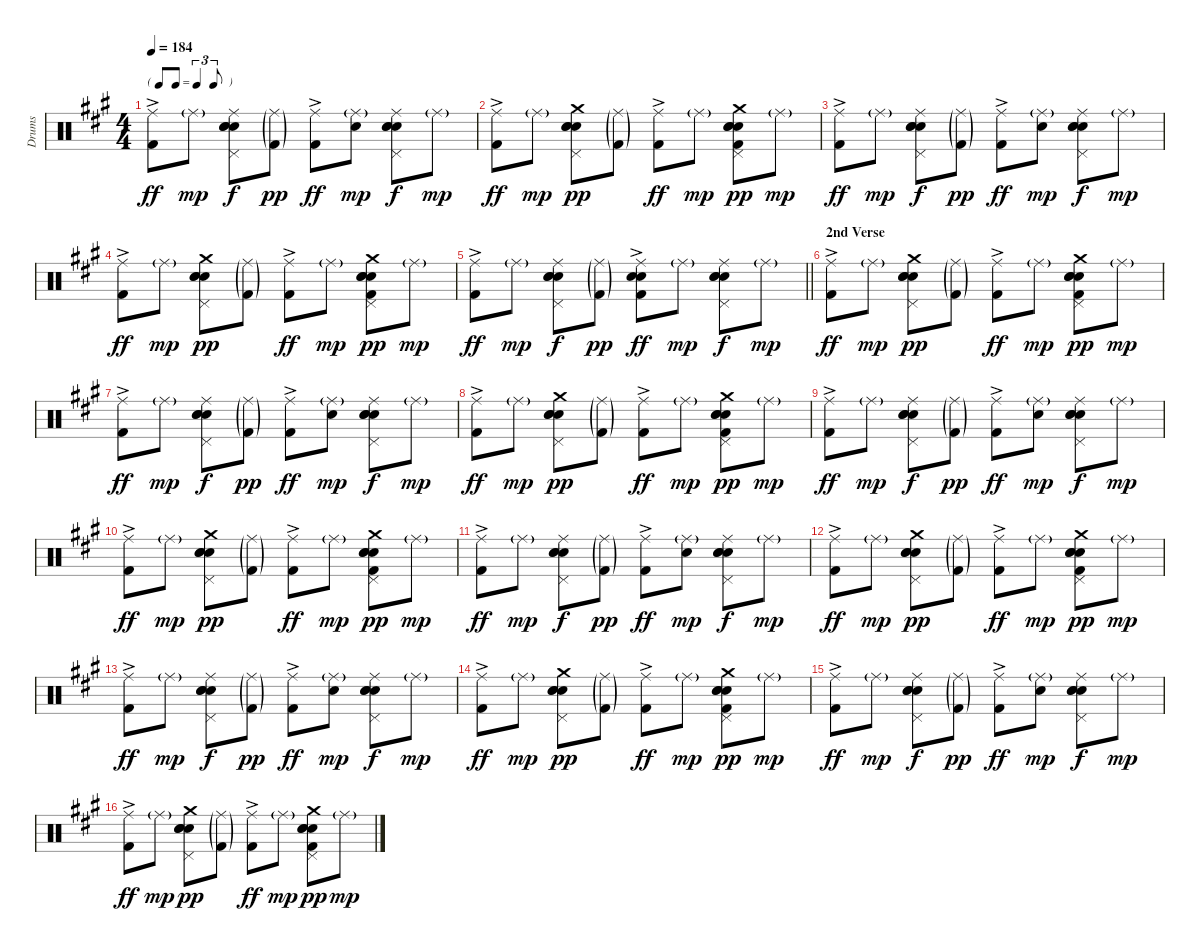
\track ("Drums" "Drums") {instrument percussion}
\staff {score}
\articulation defaults
\ts (4 4)
\tf triplet8th
\tempo 184
\clef neutral
\ks a
("Ride (middle)" "Kick (hit) 2"{ac}).8{dy ff} "Ride (middle)"{g}.8{dy mp} ("Ride (middle)" "Pedal Hi-Hat (hit)" "Hand Clap (hit)" "Electric Snare (hit)" "Snare (hit) 2").8{dy f} ("Ride (middle)"{g} "Kick (hit) 2"{g}).8{dy pp} ("Ride (middle)" "Kick (hit) 2"{ac}).8{dy ff} ("Ride (middle)"{g} "Snare (hit) 2").8{dy mp} ("Ride (middle)" "Pedal Hi-Hat (hit)" "Hand Clap (hit)" "Electric Snare (hit)" "Snare (hit) 2").8{dy f} "Ride (middle)"{g}.8{dy mp} |
("Ride (middle)" "Kick (hit) 2"{ac}).8{dy ff} "Ride (middle)"{g}.8{dy mp} ("Hand Clap (hit)" "Pedal Hi-Hat (hit)" "Crash medium (hit)" "Electric Snare (hit)" "Snare (hit) 2").8{dy pp} ("Ride (middle)"{g} "Kick (hit) 2"{g}).8 ("Ride (middle)" "Kick (hit) 2"{ac}).8{dy ff} "Ride (middle)"{g}.8{dy mp} ("Hand Clap (hit)" "Pedal Hi-Hat (hit)" "Crash medium (hit)" "Electric Snare (hit)" "Snare (hit) 2" "Kick (hit) 2").8{dy pp} "Ride (middle)"{g}.8{dy mp} |
("Ride (middle)" "Kick (hit) 2"{ac}).8{dy ff} "Ride (middle)"{g}.8{dy mp} ("Ride (middle)" "Pedal Hi-Hat (hit)" "Hand Clap (hit)" "Electric Snare (hit)" "Snare (hit) 2").8{dy f} ("Ride (middle)"{g} "Kick (hit) 2"{g}).8{dy pp} ("Ride (middle)" "Kick (hit) 2"{ac}).8{dy ff} ("Ride (middle)"{g} "Snare (hit) 2").8{dy mp} ("Ride (middle)" "Pedal Hi-Hat (hit)" "Hand Clap (hit)" "Electric Snare (hit)" "Snare (hit) 2").8{dy f} "Ride (middle)"{g}.8{dy mp} |
("Ride (middle)" "Kick (hit) 2"{ac}).8{dy ff} "Ride (middle)"{g}.8{dy mp} ("Hand Clap (hit)" "Pedal Hi-Hat (hit)" "Crash medium (hit)" "Electric Snare (hit)" "Snare (hit) 2").8{dy pp} ("Ride (middle)"{g} "Kick (hit) 2"{g}).8 ("Ride (middle)" "Kick (hit) 2"{ac}).8{dy ff} "Ride (middle)"{g}.8{dy mp} ("Hand Clap (hit)" "Pedal Hi-Hat (hit)" "Crash medium (hit)" "Electric Snare (hit)" "Snare (hit) 2" "Kick (hit) 2").8{dy pp} "Ride (middle)"{g}.8{dy mp} |
\barLineRight lightlight
("Ride (middle)" "Kick (hit) 2"{ac}).8{dy ff} "Ride (middle)"{g}.8{dy mp} ("Ride (middle)" "Pedal Hi-Hat (hit)" "Hand Clap (hit)" "Electric Snare (hit)" "Snare (hit) 2").8{dy f} ("Ride (middle)"{g} "Kick (hit) 2"{g}).8{dy pp} ("Ride (middle)" "Electric Snare (hit)"{ac} "Snare (hit) 2" "Kick (hit) 2"{ac}).8{dy ff} "Ride (middle)"{g}.8{dy mp} ("Ride (middle)" "Pedal Hi-Hat (hit)" "Hand Clap (hit)" "Electric Snare (hit)" "Snare (hit) 2").8{dy f} "Ride (middle)"{g}.8{dy mp} |
\section ("" "2nd Verse")
("Ride (middle)" "Kick (hit) 2"{ac}).8{dy ff} "Ride (middle)"{g}.8{dy mp} ("Hand Clap (hit)" "Pedal Hi-Hat (hit)" "Crash medium (hit)" "Electric Snare (hit)" "Snare (hit) 2").8{dy pp} ("Ride (middle)"{g} "Kick (hit) 2"{g}).8 ("Ride (middle)" "Kick (hit) 2"{ac}).8{dy ff} "Ride (middle)"{g}.8{dy mp} ("Hand Clap (hit)" "Pedal Hi-Hat (hit)" "Crash medium (hit)" "Electric Snare (hit)" "Snare (hit) 2" "Kick (hit) 2").8{dy pp} "Ride (middle)"{g}.8{dy mp} |
("Ride (middle)" "Kick (hit) 2"{ac}).8{dy ff} "Ride (middle)"{g}.8{dy mp} ("Ride (middle)" "Pedal Hi-Hat (hit)" "Hand Clap (hit)" "Electric Snare (hit)" "Snare (hit) 2").8{dy f} ("Ride (middle)"{g} "Kick (hit) 2"{g}).8{dy pp} ("Ride (middle)" "Kick (hit) 2"{ac}).8{dy ff} ("Ride (middle)"{g} "Snare (hit) 2").8{dy mp} ("Ride (middle)" "Pedal Hi-Hat (hit)" "Hand Clap (hit)" "Electric Snare (hit)" "Snare (hit) 2").8{dy f} "Ride (middle)"{g}.8{dy mp} |
("Ride (middle)" "Kick (hit) 2"{ac}).8{dy ff} "Ride (middle)"{g}.8{dy mp} ("Hand Clap (hit)" "Pedal Hi-Hat (hit)" "Crash medium (hit)" "Electric Snare (hit)" "Snare (hit) 2").8{dy pp} ("Ride (middle)"{g} "Kick (hit) 2"{g}).8 ("Ride (middle)" "Kick (hit) 2"{ac}).8{dy ff} "Ride (middle)"{g}.8{dy mp} ("Hand Clap (hit)" "Pedal Hi-Hat (hit)" "Crash medium (hit)" "Electric Snare (hit)" "Snare (hit) 2" "Kick (hit) 2").8{dy pp} "Ride (middle)"{g}.8{dy mp} |
("Ride (middle)" "Kick (hit) 2"{ac}).8{dy ff} "Ride (middle)"{g}.8{dy mp} ("Ride (middle)" "Pedal Hi-Hat (hit)" "Hand Clap (hit)" "Electric Snare (hit)" "Snare (hit) 2").8{dy f} ("Ride (middle)"{g} "Kick (hit) 2"{g}).8{dy pp} ("Ride (middle)" "Kick (hit) 2"{ac}).8{dy ff} ("Ride (middle)"{g} "Snare (hit) 2").8{dy mp} ("Ride (middle)" "Pedal Hi-Hat (hit)" "Hand Clap (hit)" "Electric Snare (hit)" "Snare (hit) 2").8{dy f} "Ride (middle)"{g}.8{dy mp} |
("Ride (middle)" "Kick (hit) 2"{ac}).8{dy ff} "Ride (middle)"{g}.8{dy mp} ("Hand Clap (hit)" "Pedal Hi-Hat (hit)" "Crash medium (hit)" "Electric Snare (hit)" "Snare (hit) 2").8{dy pp} ("Ride (middle)"{g} "Kick (hit) 2"{g}).8 ("Ride (middle)" "Kick (hit) 2"{ac}).8{dy ff} "Ride (middle)"{g}.8{dy mp} ("Hand Clap (hit)" "Pedal Hi-Hat (hit)" "Crash medium (hit)" "Electric Snare (hit)" "Snare (hit) 2" "Kick (hit) 2").8{dy pp} "Ride (middle)"{g}.8{dy mp} |
("Ride (middle)" "Kick (hit) 2"{ac}).8{dy ff} "Ride (middle)"{g}.8{dy mp} ("Ride (middle)" "Pedal Hi-Hat (hit)" "Hand Clap (hit)" "Electric Snare (hit)" "Snare (hit) 2").8{dy f} ("Ride (middle)"{g} "Kick (hit) 2"{g}).8{dy pp} ("Ride (middle)" "Kick (hit) 2"{ac}).8{dy ff} ("Ride (middle)"{g} "Snare (hit) 2").8{dy mp} ("Ride (middle)" "Pedal Hi-Hat (hit)" "Hand Clap (hit)" "Electric Snare (hit)" "Snare (hit) 2").8{dy f} "Ride (middle)"{g}.8{dy mp} |
("Ride (middle)" "Kick (hit) 2"{ac}).8{dy ff} "Ride (middle)"{g}.8{dy mp} ("Hand Clap (hit)" "Pedal Hi-Hat (hit)" "Crash medium (hit)" "Electric Snare (hit)" "Snare (hit) 2").8{dy pp} ("Ride (middle)"{g} "Kick (hit) 2"{g}).8 ("Ride (middle)" "Kick (hit) 2"{ac}).8{dy ff} "Ride (middle)"{g}.8{dy mp} ("Hand Clap (hit)" "Pedal Hi-Hat (hit)" "Crash medium (hit)" "Electric Snare (hit)" "Snare (hit) 2" "Kick (hit) 2").8{dy pp} "Ride (middle)"{g}.8{dy mp} |
("Ride (middle)" "Kick (hit) 2"{ac}).8{dy ff} "Ride (middle)"{g}.8{dy mp} ("Ride (middle)" "Pedal Hi-Hat (hit)" "Hand Clap (hit)" "Electric Snare (hit)" "Snare (hit) 2").8{dy f} ("Ride (middle)"{g} "Kick (hit) 2"{g}).8{dy pp} ("Ride (middle)" "Kick (hit) 2"{ac}).8{dy ff} ("Ride (middle)"{g} "Snare (hit) 2").8{dy mp} ("Ride (middle)" "Pedal Hi-Hat (hit)" "Hand Clap (hit)" "Electric Snare (hit)" "Snare (hit) 2").8{dy f} "Ride (middle)"{g}.8{dy mp} |
("Ride (middle)" "Kick (hit) 2"{ac}).8{dy ff} "Ride (middle)"{g}.8{dy mp} ("Hand Clap (hit)" "Pedal Hi-Hat (hit)" "Crash medium (hit)" "Electric Snare (hit)" "Snare (hit) 2").8{dy pp} ("Ride (middle)"{g} "Kick (hit) 2"{g}).8 ("Ride (middle)" "Kick (hit) 2"{ac}).8{dy ff} "Ride (middle)"{g}.8{dy mp} ("Hand Clap (hit)" "Pedal Hi-Hat (hit)" "Crash medium (hit)" "Electric Snare (hit)" "Snare (hit) 2" "Kick (hit) 2").8{dy pp} "Ride (middle)"{g}.8{dy mp} |
("Ride (middle)" "Kick (hit) 2"{ac}).8{dy ff} "Ride (middle)"{g}.8{dy mp} ("Ride (middle)" "Pedal Hi-Hat (hit)" "Hand Clap (hit)" "Electric Snare (hit)" "Snare (hit) 2").8{dy f} ("Ride (middle)"{g} "Kick (hit) 2"{g}).8{dy pp} ("Ride (middle)" "Kick (hit) 2"{ac}).8{dy ff} ("Ride (middle)"{g} "Snare (hit) 2").8{dy mp} ("Ride (middle)" "Pedal Hi-Hat (hit)" "Hand Clap (hit)" "Electric Snare (hit)" "Snare (hit) 2").8{dy f} "Ride (middle)"{g}.8{dy mp} |
("Ride (middle)" "Kick (hit) 2"{ac}).8{dy ff} "Ride (middle)"{g}.8{dy mp} ("Hand Clap (hit)" "Pedal Hi-Hat (hit)" "Crash medium (hit)" "Electric Snare (hit)" "Snare (hit) 2").8{dy pp} ("Ride (middle)"{g} "Kick (hit) 2"{g}).8 ("Ride (middle)" "Kick (hit) 2"{ac}).8{dy ff} "Ride (middle)"{g}.8{dy mp} ("Hand Clap (hit)" "Pedal Hi-Hat (hit)" "Crash medium (hit)" "Electric Snare (hit)" "Snare (hit) 2" "Kick (hit) 2").8{dy pp} "Ride (middle)"{g}.8{dy mp}
